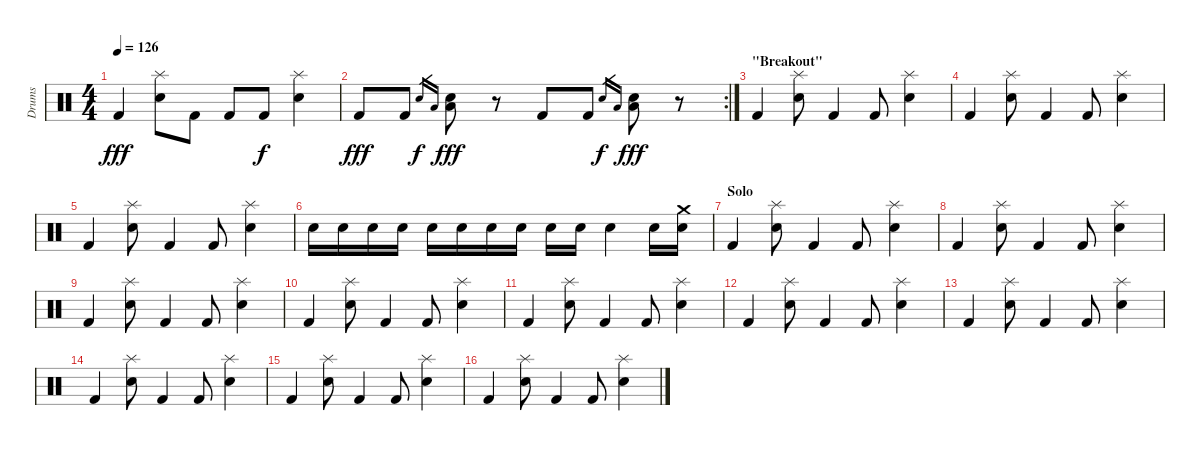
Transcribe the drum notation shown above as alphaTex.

\track ("Drums" "Drums") {instrument percussion}
\staff {score}
\articulation defaults
\ts (4 4)
\tempo 126
\clef neutral
\ks c "Kick (hit) 2".4{dy fff}
("Splash (hit)" "Electric Snare (hit)").8 "Kick (hit) 2".8 "Kick (hit) 2".8 "Kick (hit) 2".8{dy f} ("Splash (hit)" "Electric Snare (hit)").4 |
\rc 2 "Kick (hit) 2".8{dy fff} "Kick (hit) 2".8 "Electric Snare (hit)".16{gr dy f} "Low Tom (hit)".16{gr}
("Electric Snare (hit)" "Low Tom (hit)").8{dy fff} r.8 "Kick (hit) 2".8 "Kick (hit) 2".8 "Electric Snare (hit)".16{gr dy f} "Low Floor Tom (hit)".16{gr} ("Electric Snare (hit)" "Low Floor Tom (hit)").8{dy fff} r.8 |
\section ("" "\"Breakout\"")
"Kick (hit) 2".4 ("Splash (hit)" "Electric Snare (hit)").8 "Kick (hit) 2".4 "Kick (hit) 2".8 ("Splash (hit)" "Electric Snare (hit)").4 |
"Kick (hit) 2".4 ("Splash (hit)" "Electric Snare (hit)").8 "Kick (hit) 2".4 "Kick (hit) 2".8 ("Splash (hit)" "Electric Snare (hit)").4 |
"Kick (hit) 2".4 ("Splash (hit)" "Electric Snare (hit)").8 "Kick (hit) 2".4 "Kick (hit) 2".8 ("Splash (hit)" "Electric Snare (hit)").4 |
"Electric Snare (hit)".16 "Electric Snare (hit)".16 "Electric Snare (hit)".16 "Electric Snare (hit)".16 "Electric Snare (hit)".16 "Electric Snare (hit)".16 "Electric Snare (hit)".16 "Electric Snare (hit)".16 "Electric Snare (hit)".16 "Electric Snare (hit)".16 "Electric Snare (hit)".4 "Electric Snare (hit)".16 ("Crash medium (hit)" "Electric Snare (hit)").16 |
\section ("" "Solo")
"Kick (hit) 2".4 ("Splash (hit)" "Electric Snare (hit)").8 "Kick (hit) 2".4 "Kick (hit) 2".8 ("Splash (hit)" "Electric Snare (hit)").4 |
"Kick (hit) 2".4 ("Splash (hit)" "Electric Snare (hit)").8 "Kick (hit) 2".4 "Kick (hit) 2".8 ("Splash (hit)" "Electric Snare (hit)").4 |
"Kick (hit) 2".4 ("Splash (hit)" "Electric Snare (hit)").8 "Kick (hit) 2".4 "Kick (hit) 2".8 ("Splash (hit)" "Electric Snare (hit)").4 |
"Kick (hit) 2".4 ("Splash (hit)" "Electric Snare (hit)").8 "Kick (hit) 2".4 "Kick (hit) 2".8 ("Splash (hit)" "Electric Snare (hit)").4 |
"Kick (hit) 2".4 ("Splash (hit)" "Electric Snare (hit)").8 "Kick (hit) 2".4 "Kick (hit) 2".8 ("Splash (hit)" "Electric Snare (hit)").4 |
"Kick (hit) 2".4 ("Splash (hit)" "Electric Snare (hit)").8 "Kick (hit) 2".4 "Kick (hit) 2".8 ("Splash (hit)" "Electric Snare (hit)").4 |
"Kick (hit) 2".4 ("Splash (hit)" "Electric Snare (hit)").8 "Kick (hit) 2".4 "Kick (hit) 2".8 ("Splash (hit)" "Electric Snare (hit)").4 |
"Kick (hit) 2".4 ("Splash (hit)" "Electric Snare (hit)").8 "Kick (hit) 2".4 "Kick (hit) 2".8 ("Splash (hit)" "Electric Snare (hit)").4 |
"Kick (hit) 2".4 ("Splash (hit)" "Electric Snare (hit)").8 "Kick (hit) 2".4 "Kick (hit) 2".8 ("Splash (hit)" "Electric Snare (hit)").4 |
"Kick (hit) 2".4 ("Splash (hit)" "Electric Snare (hit)").8 "Kick (hit) 2".4 "Kick (hit) 2".8 ("Splash (hit)" "Electric Snare (hit)").4
